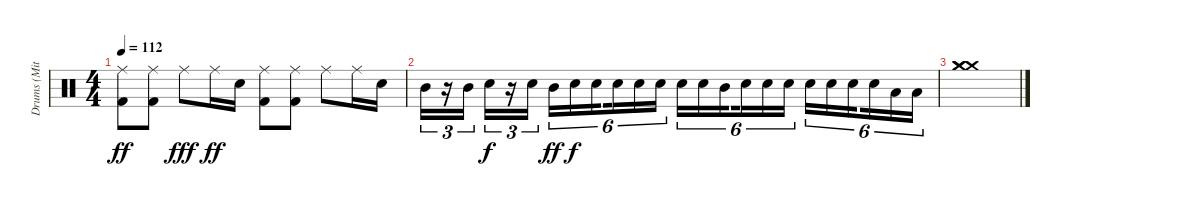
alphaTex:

\track ("Drums (Mitch Mitchell)" "Drums (Mit") {instrument percussion}
\staff {score}
\articulation defaults
\ts (4 4)
\tempo 112
\clef neutral
\ks c
("Ride (middle)" "Kick (hit) 2").8{dy ff} ("Ride (middle)" "Kick (hit) 2").8 "Ride (middle)".8{dy fff} "Ride (middle)".16{dy ff} "Electric Snare (hit)".16 ("Ride (middle)" "Kick (hit) 2").8 ("Ride (middle)" "Kick (hit) 2").8 "Ride (middle)".8 "Ride (middle)".16 "Electric Snare (hit)".16 |
"Mid Tom (hit)".16{tu (3 2)} r.16{tu (3 2)} "Mid Tom (hit)".16{tu (3 2)} "Electric Snare (hit)".16{tu (3 2) dy f} r.16{tu (3 2)} "Electric Snare (hit)".16{tu (3 2)} "Mid Tom (hit)".16{tu (6 4) dy ff} "Electric Snare (hit)".16{tu (6 4) dy f} "Electric Snare (hit)".16{tu (6 4) beam splitsecondary} "Electric Snare (hit)".16{tu (6 4)} "Electric Snare (hit)".16{tu (6 4)} "Electric Snare (hit)".16{tu (6 4)} "Electric Snare (hit)".16{tu (6 4)} "Electric Snare (hit)".16{tu (6 4)} "Mid Tom (hit)".16{tu (6 4) beam splitsecondary} "Electric Snare (hit)".16{tu (6 4)} "Electric Snare (hit)".16{tu (6 4)} "Electric Snare (hit)".16{tu (6 4)} "Electric Snare (hit)".16{tu (6 4)} "Electric Snare (hit)".16{tu (6 4)} "Electric Snare (hit)".16{tu (6 4) beam splitsecondary} "Electric Snare (hit)".16{tu (6 4)} "Low Tom (hit)".16{tu (6 4)} "Low Tom (hit)".16{tu (6 4)} |
("Crash medium (hit)" "Crash medium (hit)" "Crash medium (hit)").1
